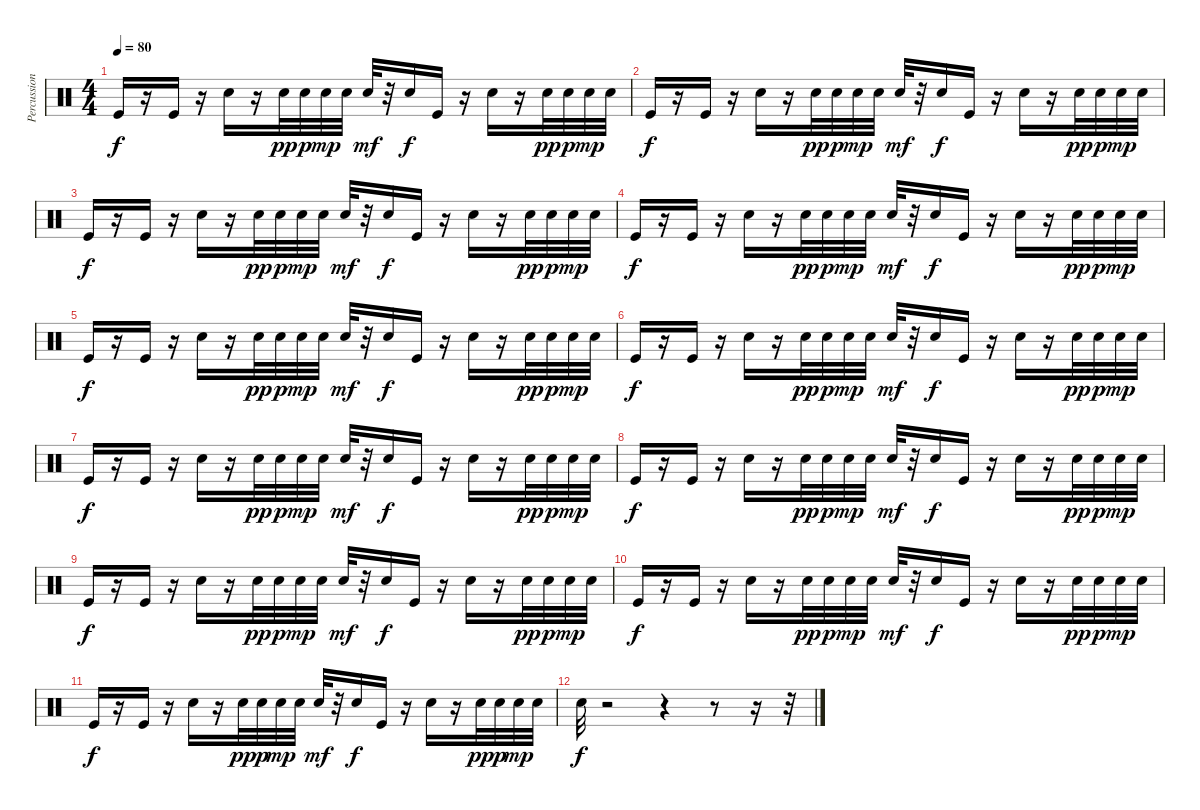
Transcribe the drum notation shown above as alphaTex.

\track ("Percussions" "Percussion") {instrument percussion}
\staff {score}
\articulation defaults
\ts (4 4)
\tempo 80
\clef neutral
\ks c "Kick (hit)".16{dy f}
r.16 "Kick (hit)".16 r.16 "Snare (hit) 2".16 r.16 "Snare (hit) 2".32{dy pp} "Snare (hit) 2".32{dy p} "Snare (hit) 2".32{dy mp} "Snare (hit) 2".32 "Snare (hit) 2".32{dy mf} r.32 "Electric Snare (hit)".16{dy f} "Kick (hit)".16 r.16 "Electric Snare (hit)".16 r.16 "Snare (hit) 2".32{dy pp} "Snare (hit) 2".32{dy p} "Snare (hit) 2".32{dy mp} "Snare (hit) 2".32 |
"Kick (hit)".16{dy f} r.16 "Kick (hit)".16 r.16 "Snare (hit) 2".16 r.16 "Snare (hit) 2".32{dy pp} "Snare (hit) 2".32{dy p} "Snare (hit) 2".32{dy mp} "Snare (hit) 2".32 "Snare (hit) 2".32{dy mf} r.32 "Electric Snare (hit)".16{dy f} "Kick (hit)".16 r.16 "Electric Snare (hit)".16 r.16 "Snare (hit) 2".32{dy pp} "Snare (hit) 2".32{dy p} "Snare (hit) 2".32{dy mp} "Snare (hit) 2".32 |
"Kick (hit)".16{dy f} r.16 "Kick (hit)".16 r.16 "Snare (hit) 2".16 r.16 "Snare (hit) 2".32{dy pp} "Snare (hit) 2".32{dy p} "Snare (hit) 2".32{dy mp} "Snare (hit) 2".32 "Snare (hit) 2".32{dy mf} r.32 "Electric Snare (hit)".16{dy f} "Kick (hit)".16 r.16 "Electric Snare (hit)".16 r.16 "Snare (hit) 2".32{dy pp} "Snare (hit) 2".32{dy p} "Snare (hit) 2".32{dy mp} "Snare (hit) 2".32 |
"Kick (hit)".16{dy f} r.16 "Kick (hit)".16 r.16 "Snare (hit) 2".16 r.16 "Snare (hit) 2".32{dy pp} "Snare (hit) 2".32{dy p} "Snare (hit) 2".32{dy mp} "Snare (hit) 2".32 "Snare (hit) 2".32{dy mf} r.32 "Electric Snare (hit)".16{dy f} "Kick (hit)".16 r.16 "Electric Snare (hit)".16 r.16 "Snare (hit) 2".32{dy pp} "Snare (hit) 2".32{dy p} "Snare (hit) 2".32{dy mp} "Snare (hit) 2".32 |
"Kick (hit)".16{dy f} r.16 "Kick (hit)".16 r.16 "Snare (hit) 2".16 r.16 "Snare (hit) 2".32{dy pp} "Snare (hit) 2".32{dy p} "Snare (hit) 2".32{dy mp} "Snare (hit) 2".32 "Snare (hit) 2".32{dy mf} r.32 "Electric Snare (hit)".16{dy f} "Kick (hit)".16 r.16 "Electric Snare (hit)".16 r.16 "Snare (hit) 2".32{dy pp} "Snare (hit) 2".32{dy p} "Snare (hit) 2".32{dy mp} "Snare (hit) 2".32 |
"Kick (hit)".16{dy f} r.16 "Kick (hit)".16 r.16 "Snare (hit) 2".16 r.16 "Snare (hit) 2".32{dy pp} "Snare (hit) 2".32{dy p} "Snare (hit) 2".32{dy mp} "Snare (hit) 2".32 "Snare (hit) 2".32{dy mf} r.32 "Electric Snare (hit)".16{dy f} "Kick (hit)".16 r.16 "Electric Snare (hit)".16 r.16 "Snare (hit) 2".32{dy pp} "Snare (hit) 2".32{dy p} "Snare (hit) 2".32{dy mp} "Snare (hit) 2".32 |
"Kick (hit)".16{dy f} r.16 "Kick (hit)".16 r.16 "Snare (hit) 2".16 r.16 "Snare (hit) 2".32{dy pp} "Snare (hit) 2".32{dy p} "Snare (hit) 2".32{dy mp} "Snare (hit) 2".32 "Snare (hit) 2".32{dy mf} r.32 "Electric Snare (hit)".16{dy f} "Kick (hit)".16 r.16 "Electric Snare (hit)".16 r.16 "Snare (hit) 2".32{dy pp} "Snare (hit) 2".32{dy p} "Snare (hit) 2".32{dy mp} "Snare (hit) 2".32 |
"Kick (hit)".16{dy f volume 0} r.16{volume 11} "Kick (hit)".16 r.16 "Snare (hit) 2".16 r.16 "Snare (hit) 2".32{dy pp} "Snare (hit) 2".32{dy p} "Snare (hit) 2".32{dy mp} "Snare (hit) 2".32 "Snare (hit) 2".32{dy mf} r.32 "Electric Snare (hit)".16{dy f} "Kick (hit)".16 r.16 "Electric Snare (hit)".16 r.16 "Snare (hit) 2".32{dy pp} "Snare (hit) 2".32{dy p} "Snare (hit) 2".32{dy mp} "Snare (hit) 2".32 |
"Kick (hit)".16{dy f} r.16 "Kick (hit)".16 r.16 "Snare (hit) 2".16 r.16 "Snare (hit) 2".32{dy pp} "Snare (hit) 2".32{dy p} "Snare (hit) 2".32{dy mp} "Snare (hit) 2".32 "Snare (hit) 2".32{dy mf} r.32 "Electric Snare (hit)".16{dy f} "Kick (hit)".16 r.16 "Electric Snare (hit)".16 r.16 "Snare (hit) 2".32{dy pp} "Snare (hit) 2".32{dy p} "Snare (hit) 2".32{dy mp} "Snare (hit) 2".32 |
"Kick (hit)".16{dy f} r.16 "Kick (hit)".16 r.16 "Snare (hit) 2".16 r.16 "Snare (hit) 2".32{dy pp} "Snare (hit) 2".32{dy p} "Snare (hit) 2".32{dy mp} "Snare (hit) 2".32 "Snare (hit) 2".32{dy mf} r.32 "Electric Snare (hit)".16{dy f} "Kick (hit)".16 r.16 "Electric Snare (hit)".16 r.16 "Snare (hit) 2".32{dy pp} "Snare (hit) 2".32{dy p} "Snare (hit) 2".32{dy mp} "Snare (hit) 2".32 |
"Kick (hit)".16{dy f} r.16 "Kick (hit)".16 r.16 "Snare (hit) 2".16 r.16 "Snare (hit) 2".32{dy pp} "Snare (hit) 2".32{dy p} "Snare (hit) 2".32{dy mp} "Snare (hit) 2".32 "Snare (hit) 2".32{dy mf} r.32 "Electric Snare (hit)".16{dy f} "Kick (hit)".16 r.16 "Electric Snare (hit)".16 r.16 "Snare (hit) 2".32{dy pp} "Snare (hit) 2".32{dy p} "Snare (hit) 2".32{dy mp} "Snare (hit) 2".32 |
"Electric Snare (hit)".32{dy f} r.2 r.4 r.8 r.16 r.32
